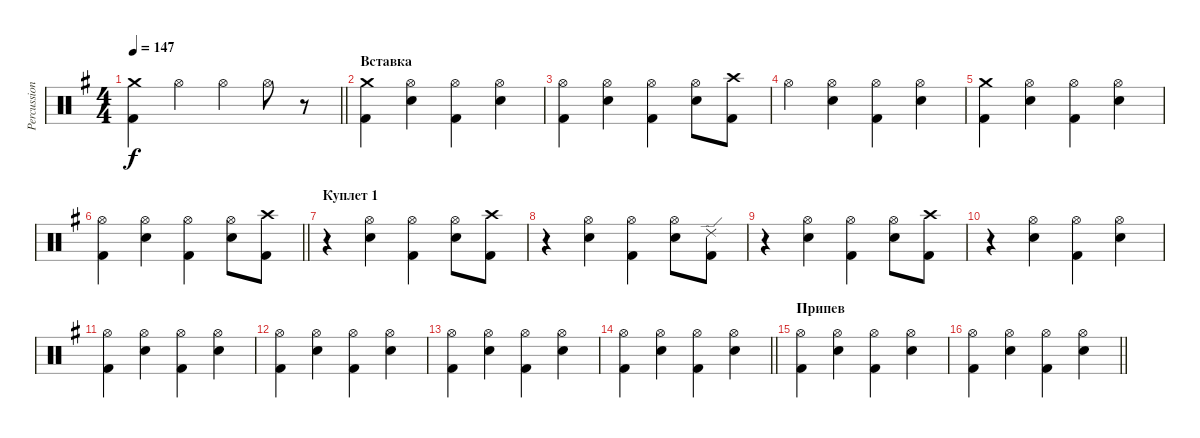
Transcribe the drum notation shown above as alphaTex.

\track ("Percussion" "Percussion") {instrument percussion}
\staff {score}
\articulation defaults
\ts (4 4)
\tempo 147
\clef neutral
\barLineRight lightlight
\ks eminor
("Crash medium (hit)" "Kick (hit) 2").4{dy f} "Hi-Hat (open)".4 "Hi-Hat (open)".4 "Hi-Hat (open)".8 r.8 |
\section ("" "Вставка")
("Crash medium (hit)" "Kick (hit) 2").4 ("Hi-Hat (open)" "Snare (hit) 2").4 ("Hi-Hat (open)" "Kick (hit) 2").4 ("Hi-Hat (open)" "Snare (hit) 2").4 |
("Hi-Hat (open)" "Kick (hit) 2").4 ("Hi-Hat (open)" "Snare (hit) 2").4 ("Hi-Hat (open)" "Kick (hit) 2").4 ("Hi-Hat (open)" "Snare (hit) 2").8 ("Crash high (hit)" "Kick (hit) 2").8 |
"Hi-Hat (open)".4 ("Hi-Hat (open)" "Snare (hit) 2").4 ("Hi-Hat (open)" "Kick (hit) 2").4 ("Hi-Hat (open)" "Snare (hit) 2").4 |
("Crash medium (hit)" "Kick (hit) 2").4 ("Hi-Hat (open)" "Snare (hit) 2").4 ("Hi-Hat (open)" "Kick (hit) 2").4 ("Hi-Hat (open)" "Snare (hit) 2").4 |
\barLineRight lightlight
("Hi-Hat (open)" "Kick (hit) 2").4 ("Hi-Hat (open)" "Snare (hit) 2").4 ("Hi-Hat (open)" "Kick (hit) 2").4 ("Hi-Hat (open)" "Snare (hit) 2").8 ("Crash high (hit)" "Kick (hit) 2").8 |
\section ("" "Куплет 1")
r.4 ("Hi-Hat (open)" "Snare (hit) 2").4 ("Hi-Hat (open)" "Kick (hit) 2").4 ("Hi-Hat (open)" "Snare (hit) 2").8 ("Crash high (hit)" "Kick (hit) 2").8 |
r.4 ("Hi-Hat (open)" "Snare (hit) 2").4 ("Hi-Hat (open)" "Kick (hit) 2").4 ("Hi-Hat (open)" "Snare (hit) 2").8 ("Ride (edge) 2" "Kick (hit) 2").8 |
r.4 ("Hi-Hat (open)" "Snare (hit) 2").4 ("Hi-Hat (open)" "Kick (hit) 2").4 ("Hi-Hat (open)" "Snare (hit) 2").8 ("Crash high (hit)" "Kick (hit) 2").8 |
r.4 ("Hi-Hat (open)" "Snare (hit) 2").4 ("Hi-Hat (open)" "Kick (hit) 2").4 ("Hi-Hat (open)" "Snare (hit) 2").4 |
("Hi-Hat (open)" "Kick (hit) 2").4 ("Hi-Hat (open)" "Snare (hit) 2").4 ("Hi-Hat (open)" "Kick (hit) 2").4 ("Hi-Hat (open)" "Snare (hit) 2").4 |
("Hi-Hat (open)" "Kick (hit) 2").4 ("Hi-Hat (open)" "Snare (hit) 2").4 ("Hi-Hat (open)" "Kick (hit) 2").4 ("Hi-Hat (open)" "Snare (hit) 2").4 |
("Hi-Hat (open)" "Kick (hit) 2").4 ("Hi-Hat (open)" "Snare (hit) 2").4 ("Hi-Hat (open)" "Kick (hit) 2").4 ("Hi-Hat (open)" "Snare (hit) 2").4 |
\barLineRight lightlight
("Hi-Hat (open)" "Kick (hit) 2").4 ("Hi-Hat (open)" "Snare (hit) 2").4 ("Hi-Hat (open)" "Kick (hit) 2").4 ("Hi-Hat (open)" "Snare (hit) 2").4 |
\section ("" "Припев")
("Hi-Hat (open)" "Kick (hit) 2").4 ("Hi-Hat (open)" "Snare (hit) 2").4 ("Hi-Hat (open)" "Kick (hit) 2").4 ("Hi-Hat (open)" "Snare (hit) 2").4 |
\barLineRight lightlight
("Hi-Hat (open)" "Kick (hit) 2").4 ("Hi-Hat (open)" "Snare (hit) 2").4 ("Hi-Hat (open)" "Kick (hit) 2").4 ("Hi-Hat (open)" "Snare (hit) 2").4
